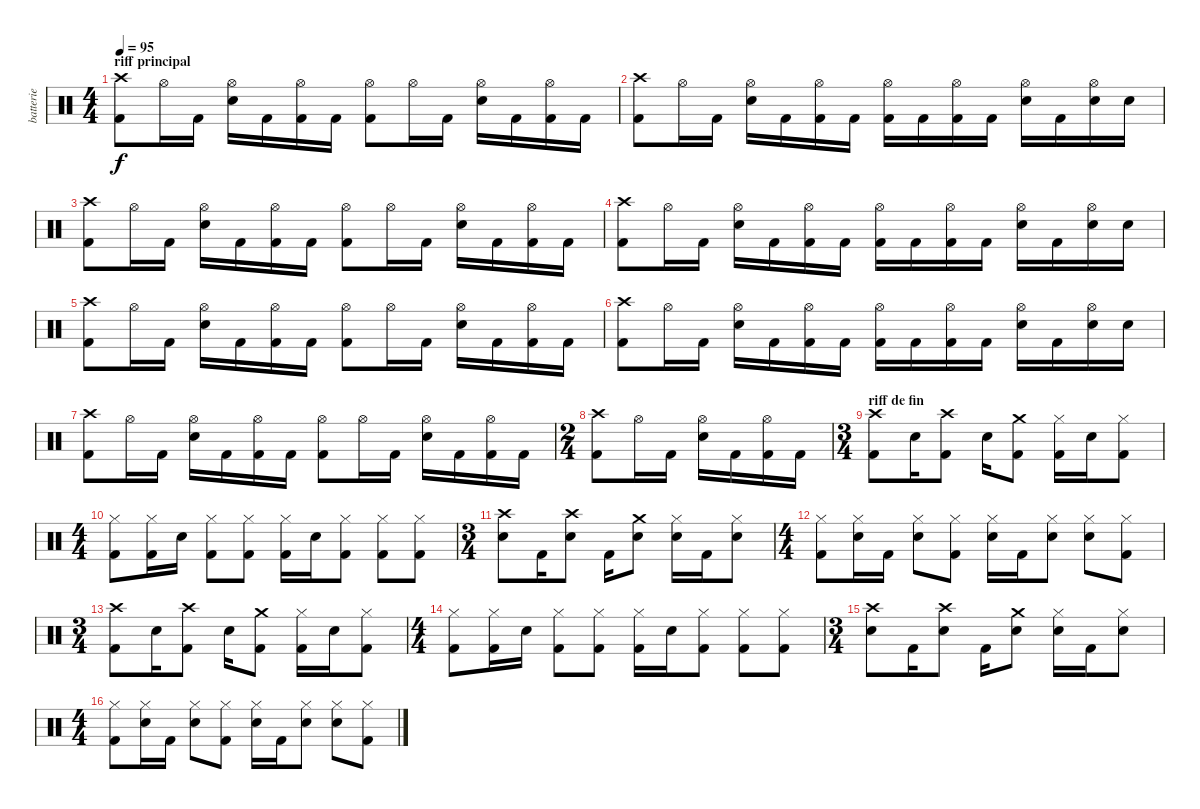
\track ("batterie" "batterie") {instrument percussion}
\staff {score}
\articulation defaults
\ts (4 4)
\section ("" "riff principal")
\tempo 95
\clef neutral
\ks c
("Crash high (hit)" "Kick (hit) 2").8{dy f} "Hi-Hat (open)".16 "Kick (hit) 2".16 ("Electric Snare (hit)" "Hi-Hat (open)").16 "Kick (hit) 2".16 ("Kick (hit) 2" "Hi-Hat (open)").16 "Kick (hit) 2".16 ("Kick (hit) 2" "Hi-Hat (open)").8 "Hi-Hat (open)".16 "Kick (hit) 2".16 ("Electric Snare (hit)" "Hi-Hat (open)").16 "Kick (hit) 2".16 ("Kick (hit) 2" "Hi-Hat (open)").16 "Kick (hit) 2".16 |
("Crash high (hit)" "Kick (hit) 2").8 "Hi-Hat (open)".16 "Kick (hit) 2".16 ("Electric Snare (hit)" "Hi-Hat (open)").16 "Kick (hit) 2".16 ("Kick (hit) 2" "Hi-Hat (open)").16 "Kick (hit) 2".16 ("Kick (hit) 2" "Hi-Hat (open)").16 "Kick (hit) 2".16 ("Kick (hit) 2" "Hi-Hat (open)").16 "Kick (hit) 2".16 ("Electric Snare (hit)" "Hi-Hat (open)").16 "Kick (hit) 2".16 ("Electric Snare (hit)" "Hi-Hat (open)").16 "Electric Snare (hit)".16 |
("Crash high (hit)" "Kick (hit) 2").8 "Hi-Hat (open)".16 "Kick (hit) 2".16 ("Electric Snare (hit)" "Hi-Hat (open)").16 "Kick (hit) 2".16 ("Kick (hit) 2" "Hi-Hat (open)").16 "Kick (hit) 2".16 ("Kick (hit) 2" "Hi-Hat (open)").8 "Hi-Hat (open)".16 "Kick (hit) 2".16 ("Electric Snare (hit)" "Hi-Hat (open)").16 "Kick (hit) 2".16 ("Kick (hit) 2" "Hi-Hat (open)").16 "Kick (hit) 2".16 |
("Crash high (hit)" "Kick (hit) 2").8 "Hi-Hat (open)".16 "Kick (hit) 2".16 ("Electric Snare (hit)" "Hi-Hat (open)").16 "Kick (hit) 2".16 ("Kick (hit) 2" "Hi-Hat (open)").16 "Kick (hit) 2".16 ("Kick (hit) 2" "Hi-Hat (open)").16 "Kick (hit) 2".16 ("Kick (hit) 2" "Hi-Hat (open)").16 "Kick (hit) 2".16 ("Electric Snare (hit)" "Hi-Hat (open)").16 "Kick (hit) 2".16 ("Electric Snare (hit)" "Hi-Hat (open)").16 "Electric Snare (hit)".16 |
("Crash high (hit)" "Kick (hit) 2").8 "Hi-Hat (open)".16 "Kick (hit) 2".16 ("Electric Snare (hit)" "Hi-Hat (open)").16 "Kick (hit) 2".16 ("Kick (hit) 2" "Hi-Hat (open)").16 "Kick (hit) 2".16 ("Kick (hit) 2" "Hi-Hat (open)").8 "Hi-Hat (open)".16 "Kick (hit) 2".16 ("Electric Snare (hit)" "Hi-Hat (open)").16 "Kick (hit) 2".16 ("Kick (hit) 2" "Hi-Hat (open)").16 "Kick (hit) 2".16 |
("Crash high (hit)" "Kick (hit) 2").8 "Hi-Hat (open)".16 "Kick (hit) 2".16 ("Electric Snare (hit)" "Hi-Hat (open)").16 "Kick (hit) 2".16 ("Kick (hit) 2" "Hi-Hat (open)").16 "Kick (hit) 2".16 ("Kick (hit) 2" "Hi-Hat (open)").16 "Kick (hit) 2".16 ("Kick (hit) 2" "Hi-Hat (open)").16 "Kick (hit) 2".16 ("Electric Snare (hit)" "Hi-Hat (open)").16 "Kick (hit) 2".16 ("Electric Snare (hit)" "Hi-Hat (open)").16 "Electric Snare (hit)".16 |
("Crash high (hit)" "Kick (hit) 2").8 "Hi-Hat (open)".16 "Kick (hit) 2".16 ("Electric Snare (hit)" "Hi-Hat (open)").16 "Kick (hit) 2".16 ("Kick (hit) 2" "Hi-Hat (open)").16 "Kick (hit) 2".16 ("Kick (hit) 2" "Hi-Hat (open)").8 "Hi-Hat (open)".16 "Kick (hit) 2".16 ("Electric Snare (hit)" "Hi-Hat (open)").16 "Kick (hit) 2".16 ("Kick (hit) 2" "Hi-Hat (open)").16 "Kick (hit) 2".16 |
\ts (2 4)
("Crash high (hit)" "Kick (hit) 2").8 "Hi-Hat (open)".16 "Kick (hit) 2".16 ("Electric Snare (hit)" "Hi-Hat (open)").16 "Kick (hit) 2".16 ("Kick (hit) 2" "Hi-Hat (open)").16 "Kick (hit) 2".16 |
\ts (3 4)
\section ("" "riff de fin")
("Crash high (hit)" "Kick (hit) 2").8 "Snare (hit) 2".16 ("Crash high (hit)" "Kick (hit) 2").8 "Snare (hit) 2".16 ("Crash medium (hit)" "Kick (hit) 2").8 ("Kick (hit) 2" "Hi-Hat (closed)").16 "Snare (hit) 2".16 ("Kick (hit) 2" "Hi-Hat (closed)").8 |
\ts (4 4)
("Kick (hit) 2" "Hi-Hat (closed)").8 ("Kick (hit) 2" "Hi-Hat (closed)").16 "Snare (hit) 2".16 ("Kick (hit) 2" "Hi-Hat (closed)").8 ("Kick (hit) 2" "Hi-Hat (closed)").8 ("Kick (hit) 2" "Hi-Hat (closed)").16 "Snare (hit) 2".16 ("Kick (hit) 2" "Hi-Hat (closed)").8 ("Kick (hit) 2" "Hi-Hat (closed)").8 ("Kick (hit) 2" "Hi-Hat (closed)").8 |
\ts (3 4)
("Crash high (hit)" "Snare (hit) 2").8 "Kick (hit) 2".16 ("Crash high (hit)" "Snare (hit) 2").8 "Kick (hit) 2".16 ("Crash medium (hit)" "Snare (hit) 2").8 ("Snare (hit) 2" "Hi-Hat (closed)").16 "Kick (hit) 2".16 ("Snare (hit) 2" "Hi-Hat (closed)").8 |
\ts (4 4)
("Kick (hit) 2" "Hi-Hat (closed)").8 ("Snare (hit) 2" "Hi-Hat (closed)").16 "Kick (hit) 2".16 ("Snare (hit) 2" "Hi-Hat (closed)").8 ("Kick (hit) 2" "Hi-Hat (closed)").8 ("Snare (hit) 2" "Hi-Hat (closed)").16 "Kick (hit) 2".16 ("Snare (hit) 2" "Hi-Hat (closed)").8 ("Snare (hit) 2" "Hi-Hat (closed)").8 ("Kick (hit) 2" "Hi-Hat (closed)").8 |
\ts (3 4)
("Crash high (hit)" "Kick (hit) 2").8 "Snare (hit) 2".16 ("Crash high (hit)" "Kick (hit) 2").8 "Snare (hit) 2".16 ("Crash medium (hit)" "Kick (hit) 2").8 ("Kick (hit) 2" "Hi-Hat (closed)").16 "Snare (hit) 2".16 ("Kick (hit) 2" "Hi-Hat (closed)").8 |
\ts (4 4)
("Kick (hit) 2" "Hi-Hat (closed)").8 ("Kick (hit) 2" "Hi-Hat (closed)").16 "Snare (hit) 2".16 ("Kick (hit) 2" "Hi-Hat (closed)").8 ("Kick (hit) 2" "Hi-Hat (closed)").8 ("Kick (hit) 2" "Hi-Hat (closed)").16 "Snare (hit) 2".16 ("Kick (hit) 2" "Hi-Hat (closed)").8 ("Kick (hit) 2" "Hi-Hat (closed)").8 ("Kick (hit) 2" "Hi-Hat (closed)").8 |
\ts (3 4)
("Crash high (hit)" "Snare (hit) 2").8 "Kick (hit) 2".16 ("Crash high (hit)" "Snare (hit) 2").8 "Kick (hit) 2".16 ("Crash medium (hit)" "Snare (hit) 2").8 ("Snare (hit) 2" "Hi-Hat (closed)").16 "Kick (hit) 2".16 ("Snare (hit) 2" "Hi-Hat (closed)").8 |
\ts (4 4)
("Kick (hit) 2" "Hi-Hat (closed)").8 ("Snare (hit) 2" "Hi-Hat (closed)").16 "Kick (hit) 2".16 ("Snare (hit) 2" "Hi-Hat (closed)").8 ("Kick (hit) 2" "Hi-Hat (closed)").8 ("Snare (hit) 2" "Hi-Hat (closed)").16 "Kick (hit) 2".16 ("Snare (hit) 2" "Hi-Hat (closed)").8 ("Snare (hit) 2" "Hi-Hat (closed)").8 ("Kick (hit) 2" "Hi-Hat (closed)").8
